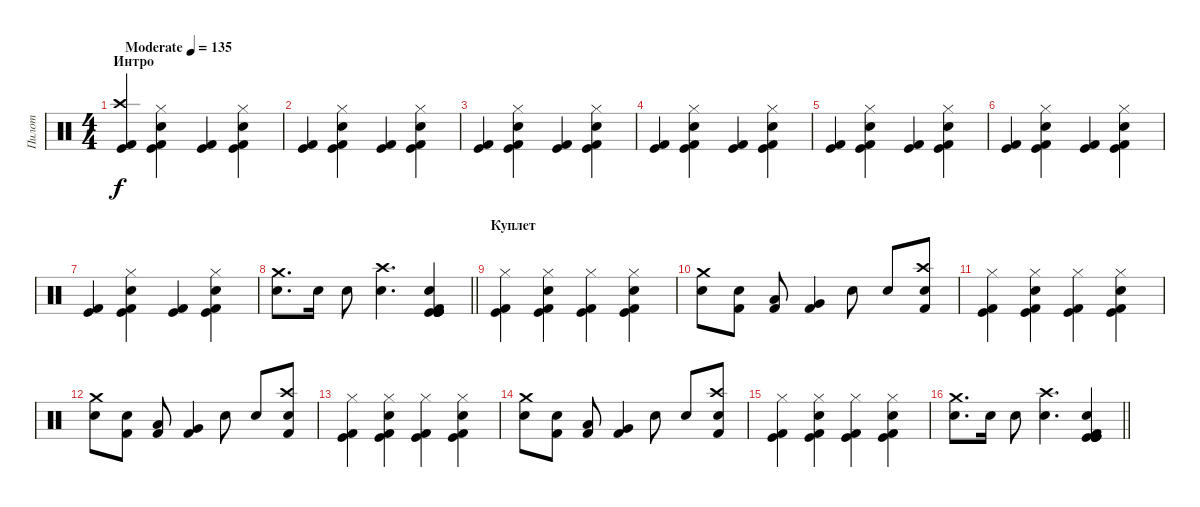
\track ("Пилот" "Пилот") {instrument percussion}
\staff {score}
\articulation defaults
\ts (4 4)
\section ("" "Интро")
\tempo (135 "Moderate")
\clef neutral
\ks c
("Kick (hit) 2" "Crash high (hit)" "Kick (hit)").4{dy f} ("Kick (hit) 2" "Snare (hit) 2" "Hi-Hat (closed)" "Kick (hit)").4 ("Kick (hit) 2" "Kick (hit)").4 ("Kick (hit) 2" "Snare (hit) 2" "Hi-Hat (closed)" "Kick (hit)").4 |
("Kick (hit) 2" "Kick (hit)").4 ("Kick (hit) 2" "Snare (hit) 2" "Hi-Hat (closed)" "Kick (hit)").4 ("Kick (hit) 2" "Kick (hit)").4 ("Kick (hit) 2" "Snare (hit) 2" "Hi-Hat (closed)" "Kick (hit)").4 |
("Kick (hit) 2" "Kick (hit)").4 ("Kick (hit) 2" "Snare (hit) 2" "Hi-Hat (closed)" "Kick (hit)").4 ("Kick (hit) 2" "Kick (hit)").4 ("Kick (hit) 2" "Snare (hit) 2" "Hi-Hat (closed)" "Kick (hit)").4 |
("Kick (hit) 2" "Kick (hit)").4 ("Kick (hit) 2" "Snare (hit) 2" "Hi-Hat (closed)" "Kick (hit)").4 ("Kick (hit) 2" "Kick (hit)").4 ("Kick (hit) 2" "Snare (hit) 2" "Hi-Hat (closed)" "Kick (hit)").4 |
("Kick (hit) 2" "Kick (hit)").4 ("Kick (hit) 2" "Snare (hit) 2" "Hi-Hat (closed)" "Kick (hit)").4 ("Kick (hit) 2" "Kick (hit)").4 ("Kick (hit) 2" "Snare (hit) 2" "Hi-Hat (closed)" "Kick (hit)").4 |
("Kick (hit) 2" "Kick (hit)").4 ("Kick (hit) 2" "Snare (hit) 2" "Hi-Hat (closed)" "Kick (hit)").4 ("Kick (hit) 2" "Kick (hit)").4 ("Kick (hit) 2" "Snare (hit) 2" "Hi-Hat (closed)" "Kick (hit)").4 |
("Kick (hit) 2" "Kick (hit)").4 ("Kick (hit) 2" "Snare (hit) 2" "Hi-Hat (closed)" "Kick (hit)").4 ("Kick (hit) 2" "Kick (hit)").4 ("Kick (hit) 2" "Snare (hit) 2" "Hi-Hat (closed)" "Kick (hit)").4 |
\barLineRight lightlight
("Snare (hit) 2" "Crash medium (hit)").8{d} "Snare (hit) 2".16 "Snare (hit) 2".8 ("Crash high (hit)" "Snare (hit) 2").4{d} ("Kick (hit) 2" "Snare (hit) 2" "Kick (hit)" "Kick (hit)" "Kick (hit)" "Kick (hit)").4 |
\section ("" "Куплет")
("Kick (hit) 2" "Hi-Hat (closed)" "Kick (hit)").4 ("Kick (hit) 2" "Snare (hit) 2" "Hi-Hat (closed)" "Kick (hit)").4 ("Kick (hit) 2" "Hi-Hat (closed)" "Kick (hit)").4 ("Kick (hit) 2" "Snare (hit) 2" "Hi-Hat (closed)" "Kick (hit)").4 |
("Crash medium (hit)" "Snare (hit) 2").8 ("Kick (hit) 2" "Snare (hit) 2").8 ("Kick (hit) 2" "Low Tom (hit)").8 ("Kick (hit) 2" "Very Low Tom (hit)").4 "Snare (hit) 2".8 "Snare (hit) 2".8 ("Kick (hit) 2" "Crash high (hit)" "Snare (hit) 2").8 |
("Kick (hit) 2" "Hi-Hat (closed)" "Kick (hit)").4 ("Kick (hit) 2" "Snare (hit) 2" "Hi-Hat (closed)" "Kick (hit)").4 ("Kick (hit) 2" "Hi-Hat (closed)" "Kick (hit)").4 ("Kick (hit) 2" "Snare (hit) 2" "Hi-Hat (closed)" "Kick (hit)").4 |
("Crash medium (hit)" "Snare (hit) 2").8 ("Kick (hit) 2" "Snare (hit) 2").8 ("Kick (hit) 2" "Low Tom (hit)").8 ("Kick (hit) 2" "Very Low Tom (hit)").4 "Snare (hit) 2".8 "Snare (hit) 2".8 ("Kick (hit) 2" "Crash high (hit)" "Snare (hit) 2").8 |
("Kick (hit) 2" "Hi-Hat (closed)" "Kick (hit)").4 ("Kick (hit) 2" "Snare (hit) 2" "Hi-Hat (closed)" "Kick (hit)").4 ("Kick (hit) 2" "Hi-Hat (closed)" "Kick (hit)").4 ("Kick (hit) 2" "Snare (hit) 2" "Hi-Hat (closed)" "Kick (hit)").4 |
("Crash medium (hit)" "Snare (hit) 2").8 ("Kick (hit) 2" "Snare (hit) 2").8 ("Kick (hit) 2" "Low Tom (hit)").8 ("Kick (hit) 2" "Very Low Tom (hit)").4 "Snare (hit) 2".8 "Snare (hit) 2".8 ("Kick (hit) 2" "Crash high (hit)" "Snare (hit) 2").8 |
("Kick (hit) 2" "Hi-Hat (closed)" "Kick (hit)").4 ("Kick (hit) 2" "Snare (hit) 2" "Hi-Hat (closed)" "Kick (hit)").4 ("Kick (hit) 2" "Hi-Hat (closed)" "Kick (hit)").4 ("Kick (hit) 2" "Snare (hit) 2" "Hi-Hat (closed)" "Kick (hit)").4 |
\barLineRight lightlight
("Snare (hit) 2" "Crash medium (hit)").8{d} "Snare (hit) 2".16 "Snare (hit) 2".8 ("Crash high (hit)" "Snare (hit) 2").4{d} ("Kick (hit) 2" "Snare (hit) 2" "Kick (hit)" "Kick (hit)" "Kick (hit)" "Kick (hit)").4
